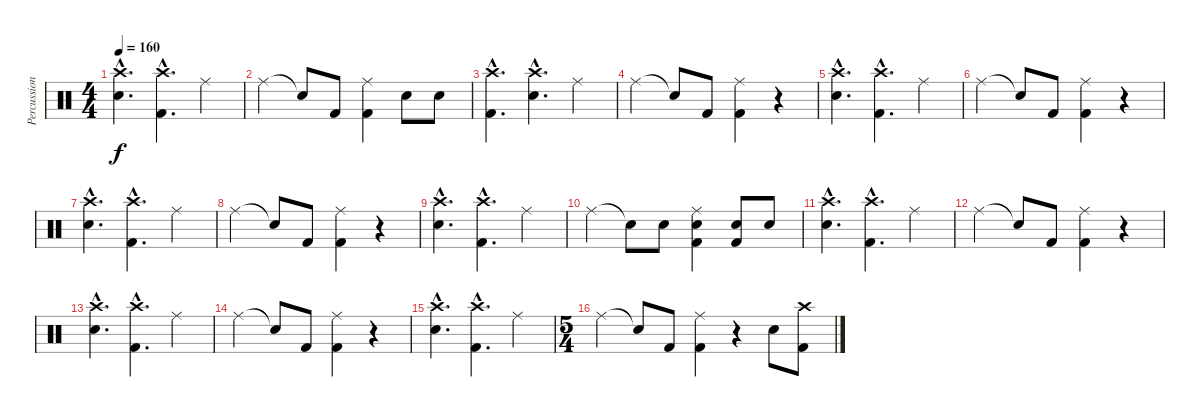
\track ("Percussion" "Percussion") {instrument percussion}
\staff {score}
\articulation defaults
\ts (4 4)
\tempo 160
\clef neutral
\ks c
("Crash high (hit)"{hac} "Snare (hit) 2"{hac}).4{d dy f} ("Crash high (hit)"{hac} "Kick (hit) 2"{hac}).4{d} "Ride (middle)".4 |
"Ride (middle)".4 "Snare (hit)"{t}.8 "Kick (hit) 2".8 ("Ride (middle)" "Kick (hit) 2").4 "Snare (hit) 2".8 "Snare (hit) 2".8 |
("Crash high (hit)"{hac} "Kick (hit) 2"{hac}).4{d} ("Crash high (hit)"{hac} "Snare (hit) 2"{hac}).4{d} "Ride (middle)".4 |
"Ride (middle)".4 "Snare (hit)"{t}.8 "Kick (hit) 2".8 ("Ride (middle)" "Kick (hit) 2").4 r.4 |
("Crash high (hit)"{hac} "Snare (hit) 2"{hac}).4{d} ("Crash high (hit)"{hac} "Kick (hit) 2"{hac}).4{d} "Ride (middle)".4 |
"Ride (middle)".4 "Snare (hit)"{t}.8 "Kick (hit) 2".8 ("Ride (middle)" "Kick (hit) 2").4 r.4 |
("Crash high (hit)"{hac} "Snare (hit) 2"{hac}).4{d} ("Crash high (hit)"{hac} "Kick (hit) 2"{hac}).4{d} "Ride (middle)".4 |
"Ride (middle)".4 "Snare (hit)"{t}.8 "Kick (hit) 2".8 ("Ride (middle)" "Kick (hit) 2").4 r.4 |
("Crash high (hit)"{hac} "Snare (hit) 2"{hac}).4{d} ("Crash high (hit)"{hac} "Kick (hit) 2"{hac}).4{d} "Ride (middle)".4 |
"Ride (middle)".4 "Snare (hit)"{t}.8 "Snare (hit) 2".8 ("Ride (middle)" "Snare (hit) 2" "Kick (hit) 2").4 ("Snare (hit) 2" "Kick (hit) 2").8 "Snare (hit) 2".8 |
("Crash high (hit)"{hac} "Snare (hit) 2"{hac}).4{d} ("Crash high (hit)"{hac} "Kick (hit) 2"{hac}).4{d} "Ride (middle)".4 |
"Ride (middle)".4 "Snare (hit)"{t}.8 "Kick (hit) 2".8 ("Ride (middle)" "Kick (hit) 2").4 r.4 |
("Crash high (hit)"{hac} "Snare (hit) 2"{hac}).4{d} ("Crash high (hit)"{hac} "Kick (hit) 2"{hac}).4{d} "Ride (middle)".4 |
"Ride (middle)".4 "Snare (hit)"{t}.8 "Kick (hit) 2".8 ("Ride (middle)" "Kick (hit) 2").4 r.4 |
("Crash high (hit)"{hac} "Snare (hit) 2"{hac}).4{d} ("Crash high (hit)"{hac} "Kick (hit) 2"{hac}).4{d} "Ride (middle)".4 |
\ts (5 4)
"Ride (middle)".4 "Snare (hit)"{t}.8 "Kick (hit) 2".8 ("Ride (middle)" "Kick (hit) 2").4 r.4 "Snare (hit) 2".8 ("Crash high (hit)" "Kick (hit) 2").8
